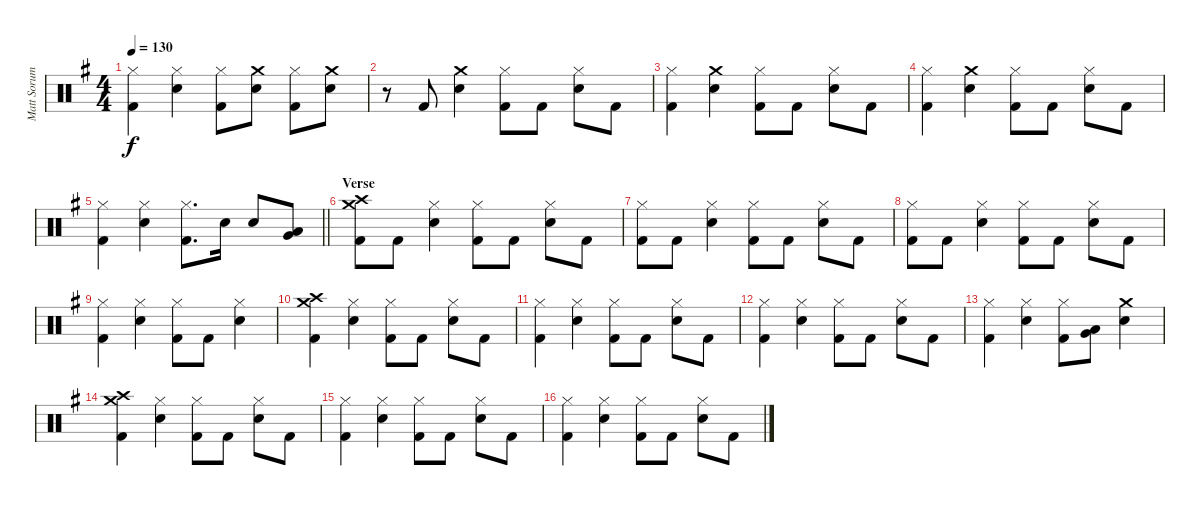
\track ("Matt Sorum - Drums" "Matt Sorum") {instrument percussion}
\staff {score}
\articulation defaults
\ts (4 4)
\tempo 130
\clef neutral
\ks g
("Hi-Hat (closed)" "Kick (hit) 2").4{dy f} ("Hi-Hat (closed)" "Snare (hit) 2").4 ("Hi-Hat (closed)" "Kick (hit) 2").8 ("Crash medium (hit)" "Snare (hit) 2").8 ("Hi-Hat (closed)" "Kick (hit) 2").8 ("Crash medium (hit)" "Snare (hit) 2").8 |
r.8 "Kick (hit) 2".8 ("Crash medium (hit)" "Snare (hit) 2").4 ("Hi-Hat (closed)" "Kick (hit) 2").8 "Kick (hit) 2".8 ("Hi-Hat (closed)" "Snare (hit) 2").8 "Kick (hit) 2".8 |
("Hi-Hat (closed)" "Kick (hit) 2").4 ("Crash medium (hit)" "Snare (hit) 2").4 ("Hi-Hat (closed)" "Kick (hit) 2").8 "Kick (hit) 2".8 ("Hi-Hat (closed)" "Snare (hit) 2").8 "Kick (hit) 2".8 |
("Hi-Hat (closed)" "Kick (hit) 2").4 ("Crash medium (hit)" "Snare (hit) 2").4 ("Hi-Hat (closed)" "Kick (hit) 2").8 "Kick (hit) 2".8 ("Hi-Hat (closed)" "Snare (hit) 2").8 "Kick (hit) 2".8 |
\barLineRight lightlight
("Hi-Hat (closed)" "Kick (hit) 2").4 ("Hi-Hat (closed)" "Snare (hit) 2").4 ("Hi-Hat (closed)" "Kick (hit) 2").8{d} "Snare (hit) 2".16 "Snare (hit) 2".8 ("Low Tom (hit)" "Very Low Tom (hit)").8 |
\section ("" "Verse")
("Crash medium (hit)" "Crash high (hit)" "Kick (hit) 2").8 "Kick (hit) 2".8 ("Hi-Hat (closed)" "Snare (hit) 2").4 ("Hi-Hat (closed)" "Kick (hit) 2").8 "Kick (hit) 2".8 ("Hi-Hat (closed)" "Snare (hit) 2").8 "Kick (hit) 2".8 |
("Hi-Hat (closed)" "Kick (hit) 2").8 "Kick (hit) 2".8 ("Hi-Hat (closed)" "Snare (hit) 2").4 ("Hi-Hat (closed)" "Kick (hit) 2").8 "Kick (hit) 2".8 ("Hi-Hat (closed)" "Snare (hit) 2").8 "Kick (hit) 2".8 |
("Hi-Hat (closed)" "Kick (hit) 2").8 "Kick (hit) 2".8 ("Hi-Hat (closed)" "Snare (hit) 2").4 ("Hi-Hat (closed)" "Kick (hit) 2").8 "Kick (hit) 2".8 ("Hi-Hat (closed)" "Snare (hit) 2").8 "Kick (hit) 2".8 |
("Hi-Hat (closed)" "Kick (hit) 2").4 ("Hi-Hat (closed)" "Snare (hit) 2").4 ("Hi-Hat (closed)" "Kick (hit) 2").8 "Kick (hit) 2".8 ("Hi-Hat (closed)" "Snare (hit) 2").4 |
("Crash medium (hit)" "Crash high (hit)" "Kick (hit) 2").4 ("Hi-Hat (closed)" "Snare (hit) 2").4 ("Hi-Hat (closed)" "Kick (hit) 2").8 "Kick (hit) 2".8 ("Hi-Hat (closed)" "Snare (hit) 2").8 "Kick (hit) 2".8 |
("Hi-Hat (closed)" "Kick (hit) 2").4 ("Hi-Hat (closed)" "Snare (hit) 2").4 ("Hi-Hat (closed)" "Kick (hit) 2").8 "Kick (hit) 2".8 ("Hi-Hat (closed)" "Snare (hit) 2").8 "Kick (hit) 2".8 |
("Hi-Hat (closed)" "Kick (hit) 2").4 ("Hi-Hat (closed)" "Snare (hit) 2").4 ("Hi-Hat (closed)" "Kick (hit) 2").8 "Kick (hit) 2".8 ("Hi-Hat (closed)" "Snare (hit) 2").8 "Kick (hit) 2".8 |
("Hi-Hat (closed)" "Kick (hit) 2").4 ("Hi-Hat (closed)" "Snare (hit) 2").4 ("Hi-Hat (closed)" "Kick (hit) 2").8 ("Low Tom (hit)" "Very Low Tom (hit)").8 ("Crash medium (hit)" "Snare (hit) 2").4 |
("Crash medium (hit)" "Crash high (hit)" "Kick (hit) 2").4 ("Hi-Hat (closed)" "Snare (hit) 2").4 ("Hi-Hat (closed)" "Kick (hit) 2").8 "Kick (hit) 2".8 ("Hi-Hat (closed)" "Snare (hit) 2").8 "Kick (hit) 2".8 |
("Hi-Hat (closed)" "Kick (hit) 2").4 ("Hi-Hat (closed)" "Snare (hit) 2").4 ("Hi-Hat (closed)" "Kick (hit) 2").8 "Kick (hit) 2".8 ("Hi-Hat (closed)" "Snare (hit) 2").8 "Kick (hit) 2".8 |
("Hi-Hat (closed)" "Kick (hit) 2").4 ("Hi-Hat (closed)" "Snare (hit) 2").4 ("Hi-Hat (closed)" "Kick (hit) 2").8 "Kick (hit) 2".8 ("Hi-Hat (closed)" "Snare (hit) 2").8 "Kick (hit) 2".8
